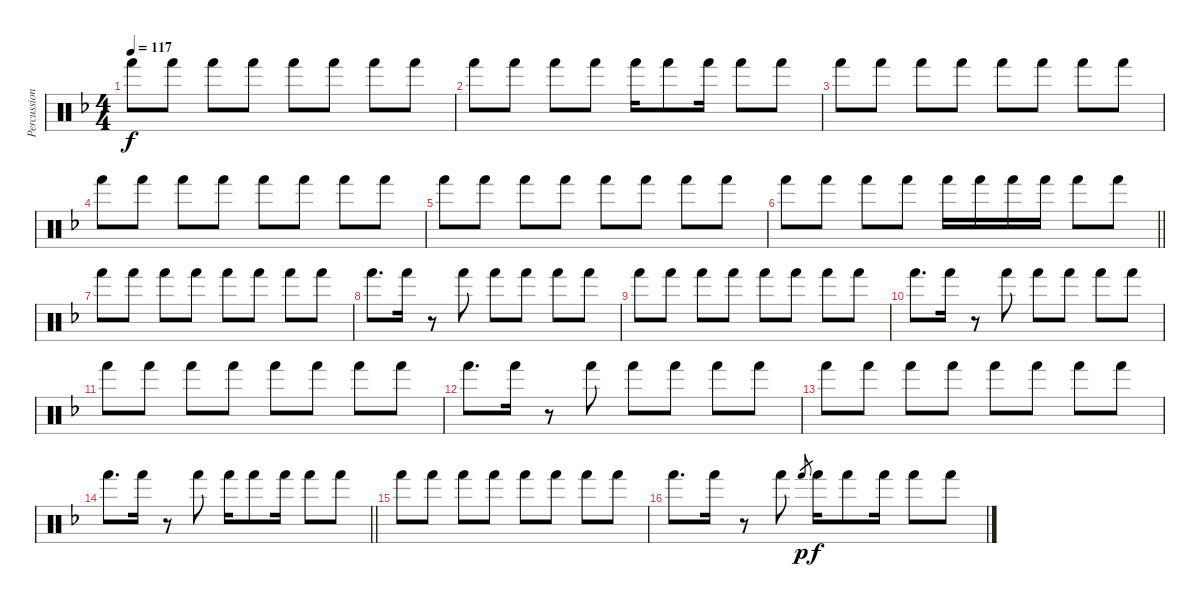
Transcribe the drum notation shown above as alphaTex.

\track ("Percussion" "Percussion") {instrument percussion}
\staff {score}
\articulation defaults
\ts (4 4)
\tempo 117
\clef neutral
\ks f "Hand (hit)".8{dy f} "Hand (hit)".8 "Hand (hit)".8 "Hand (hit)".8 "Hand (hit)".8 "Hand (hit)".8 "Hand (hit)".8 "Hand (hit)".8
|
"Hand (hit)".8 "Hand (hit)".8 "Hand (hit)".8 "Hand (hit)".8 "Hand (hit)".16 "Hand (hit)".8 "Hand (hit)".16 "Hand (hit)".8 "Hand (hit)".8 |
"Hand (hit)".8 "Hand (hit)".8 "Hand (hit)".8 "Hand (hit)".8 "Hand (hit)".8 "Hand (hit)".8 "Hand (hit)".8 "Hand (hit)".8 |
"Hand (hit)".8 "Hand (hit)".8 "Hand (hit)".8 "Hand (hit)".8 "Hand (hit)".8 "Hand (hit)".8 "Hand (hit)".8 "Hand (hit)".8 |
"Hand (hit)".8 "Hand (hit)".8 "Hand (hit)".8 "Hand (hit)".8 "Hand (hit)".8 "Hand (hit)".8 "Hand (hit)".8 "Hand (hit)".8 |
\barLineRight lightlight "Hand (hit)".8 "Hand (hit)".8 "Hand (hit)".8 "Hand (hit)".8 "Hand (hit)".16 "Hand (hit)".16 "Hand (hit)".16 "Hand (hit)".16 "Hand (hit)".8 "Hand (hit)".8
|
"Hand (hit)".8 "Hand (hit)".8 "Hand (hit)".8 "Hand (hit)".8 "Hand (hit)".8 "Hand (hit)".8 "Hand (hit)".8 "Hand (hit)".8 |
"Hand (hit)".8{d} "Hand (hit)".16 r.8 "Hand (hit)".8 "Hand (hit)".8 "Hand (hit)".8 "Hand (hit)".8 "Hand (hit)".8 |
"Hand (hit)".8 "Hand (hit)".8 "Hand (hit)".8 "Hand (hit)".8 "Hand (hit)".8 "Hand (hit)".8 "Hand (hit)".8 "Hand (hit)".8 |
"Hand (hit)".8{d} "Hand (hit)".16 r.8 "Hand (hit)".8 "Hand (hit)".8 "Hand (hit)".8 "Hand (hit)".8 "Hand (hit)".8 |
"Hand (hit)".8 "Hand (hit)".8 "Hand (hit)".8 "Hand (hit)".8 "Hand (hit)".8 "Hand (hit)".8 "Hand (hit)".8 "Hand (hit)".8 |
"Hand (hit)".8{d} "Hand (hit)".16 r.8 "Hand (hit)".8 "Hand (hit)".8 "Hand (hit)".8 "Hand (hit)".8 "Hand (hit)".8 |
"Hand (hit)".8 "Hand (hit)".8 "Hand (hit)".8 "Hand (hit)".8 "Hand (hit)".8 "Hand (hit)".8 "Hand (hit)".8 "Hand (hit)".8 |
\barLineRight lightlight "Hand (hit)".8{d} "Hand (hit)".16
r.8 "Hand (hit)".8 "Hand (hit)".16 "Hand (hit)".8 "Hand (hit)".16 "Hand (hit)".8 "Hand (hit)".8 |
"Hand (hit)".8 "Hand (hit)".8 "Hand (hit)".8 "Hand (hit)".8 "Hand (hit)".8 "Hand (hit)".8 "Hand (hit)".8 "Hand (hit)".8 |
"Hand (hit)".8{d} "Hand (hit)".16 r.8 "Hand (hit)".8 "Hand (hit)".8{gr dy p} "Hand (hit)".16{dy f} "Hand (hit)".8 "Hand (hit)".16 "Hand (hit)".8 "Hand (hit)".8
